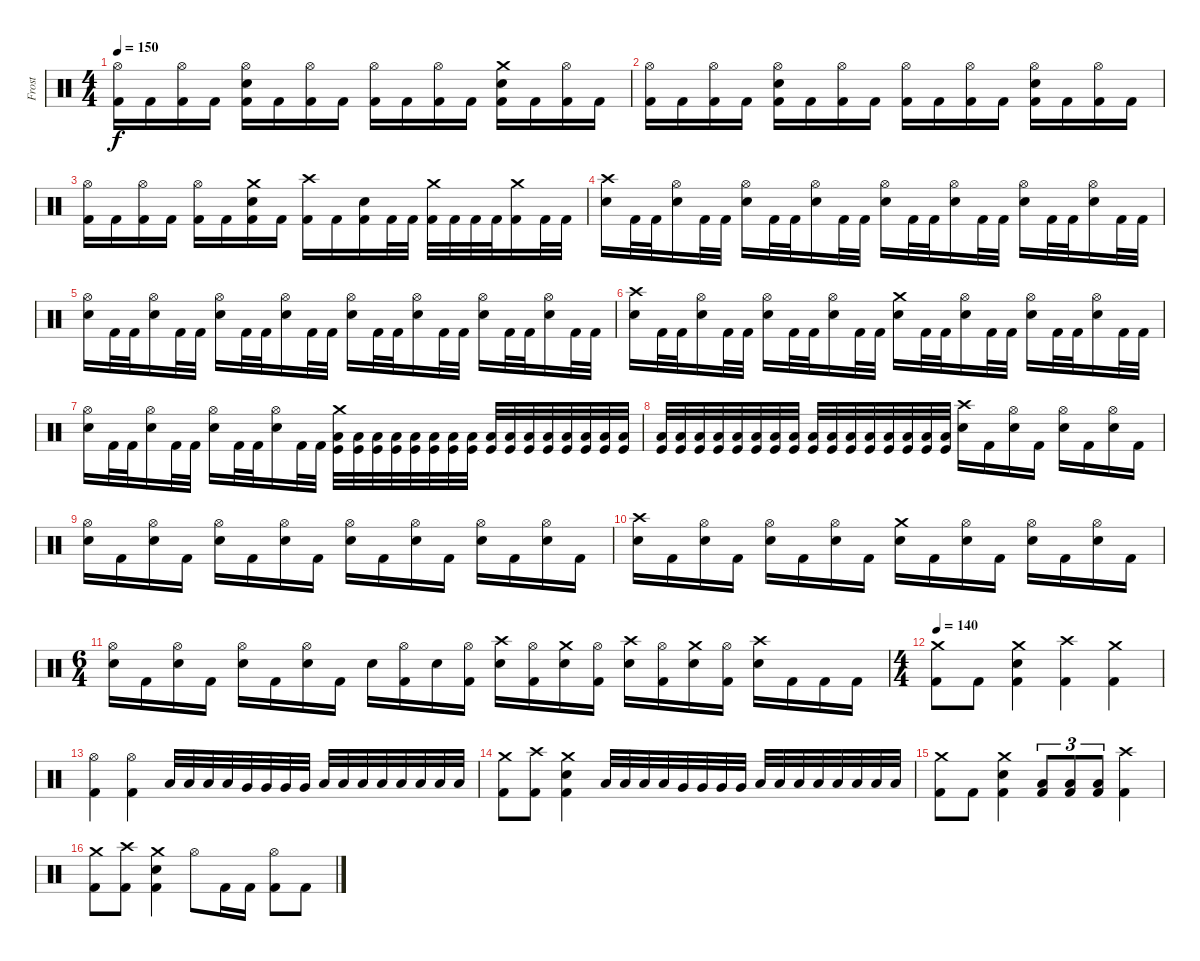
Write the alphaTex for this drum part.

\track ("Frost" "Frost") {instrument percussion}
\staff {score}
\articulation defaults
\ts (4 4)
\tempo 150
\clef neutral
\ks c
("Hi-Hat (open)" "Kick (hit) 2").16{dy f} "Kick (hit) 2".16 ("Hi-Hat (open)" "Kick (hit) 2").16 "Kick (hit) 2".16 ("Hi-Hat (open)" "Snare (hit) 2" "Kick (hit) 2").16 "Kick (hit) 2".16 ("Hi-Hat (open)" "Kick (hit) 2").16 "Kick (hit) 2".16 ("Hi-Hat (open)" "Kick (hit) 2").16 "Kick (hit) 2".16 ("Hi-Hat (open)" "Kick (hit) 2").16 "Kick (hit) 2".16 ("Crash medium (hit)" "Snare (hit) 2" "Kick (hit) 2").16 "Kick (hit) 2".16 ("Hi-Hat (open)" "Kick (hit) 2").16 "Kick (hit) 2".16 |
("Hi-Hat (open)" "Kick (hit) 2").16 "Kick (hit) 2".16 ("Hi-Hat (open)" "Kick (hit) 2").16 "Kick (hit) 2".16 ("Hi-Hat (open)" "Snare (hit) 2" "Kick (hit) 2").16 "Kick (hit) 2".16 ("Hi-Hat (open)" "Kick (hit) 2").16 "Kick (hit) 2".16 ("Hi-Hat (open)" "Kick (hit) 2").16 "Kick (hit) 2".16 ("Hi-Hat (open)" "Kick (hit) 2").16 "Kick (hit) 2".16 ("Hi-Hat (open)" "Snare (hit) 2" "Kick (hit) 2").16 "Kick (hit) 2".16 ("Hi-Hat (open)" "Kick (hit) 2").16 "Kick (hit) 2".16 |
("Hi-Hat (open)" "Kick (hit) 2").16 "Kick (hit) 2".16 ("Hi-Hat (open)" "Kick (hit) 2").16 "Kick (hit) 2".16 ("Hi-Hat (open)" "Kick (hit) 2").16 "Kick (hit) 2".16 ("Crash medium (hit)" "Snare (hit) 2" "Kick (hit) 2").16 "Kick (hit) 2".16 ("Crash high (hit)" "Kick (hit) 2").16 "Kick (hit) 2".16 ("Snare (hit) 2" "Kick (hit) 2").16 "Kick (hit) 2".32 "Kick (hit) 2".32 ("Crash medium (hit)" "Kick (hit) 2").32 "Kick (hit) 2".32 "Kick (hit) 2".32 "Kick (hit) 2".32 ("Crash medium (hit)" "Kick (hit) 2").16 "Kick (hit) 2".32 "Kick (hit) 2".32 |
("Crash high (hit)" "Snare (hit) 2").16 "Kick (hit) 2".32 "Kick (hit) 2".32 ("Hi-Hat (open)" "Snare (hit) 2").16 "Kick (hit) 2".32 "Kick (hit) 2".32 ("Hi-Hat (open)" "Snare (hit) 2").16 "Kick (hit) 2".32 "Kick (hit) 2".32 ("Hi-Hat (open)" "Snare (hit) 2").16 "Kick (hit) 2".32 "Kick (hit) 2".32 ("Hi-Hat (open)" "Snare (hit) 2").16 "Kick (hit) 2".32 "Kick (hit) 2".32 ("Hi-Hat (open)" "Snare (hit) 2").16 "Kick (hit) 2".32 "Kick (hit) 2".32 ("Hi-Hat (open)" "Snare (hit) 2").16 "Kick (hit) 2".32 "Kick (hit) 2".32 ("Hi-Hat (open)" "Snare (hit) 2").16 "Kick (hit) 2".32 "Kick (hit) 2".32 |
("Hi-Hat (open)" "Snare (hit) 2").16 "Kick (hit) 2".32 "Kick (hit) 2".32 ("Hi-Hat (open)" "Snare (hit) 2").16 "Kick (hit) 2".32 "Kick (hit) 2".32 ("Hi-Hat (open)" "Snare (hit) 2").16 "Kick (hit) 2".32 "Kick (hit) 2".32 ("Hi-Hat (open)" "Snare (hit) 2").16 "Kick (hit) 2".32 "Kick (hit) 2".32 ("Hi-Hat (open)" "Snare (hit) 2").16 "Kick (hit) 2".32 "Kick (hit) 2".32 ("Hi-Hat (open)" "Snare (hit) 2").16 "Kick (hit) 2".32 "Kick (hit) 2".32 ("Hi-Hat (open)" "Snare (hit) 2").16 "Kick (hit) 2".32 "Kick (hit) 2".32 ("Hi-Hat (open)" "Snare (hit) 2").16 "Kick (hit) 2".32 "Kick (hit) 2".32 |
("Crash high (hit)" "Snare (hit) 2").16 "Kick (hit) 2".32 "Kick (hit) 2".32 ("Hi-Hat (open)" "Snare (hit) 2").16 "Kick (hit) 2".32 "Kick (hit) 2".32 ("Hi-Hat (open)" "Snare (hit) 2").16 "Kick (hit) 2".32 "Kick (hit) 2".32 ("Hi-Hat (open)" "Snare (hit) 2").16 "Kick (hit) 2".32 "Kick (hit) 2".32 ("Crash medium (hit)" "Snare (hit) 2").16 "Kick (hit) 2".32 "Kick (hit) 2".32 ("Hi-Hat (open)" "Snare (hit) 2").16 "Kick (hit) 2".32 "Kick (hit) 2".32 ("Hi-Hat (open)" "Snare (hit) 2").16 "Kick (hit) 2".32 "Kick (hit) 2".32 ("Hi-Hat (open)" "Snare (hit) 2").16 "Kick (hit) 2".32 "Kick (hit) 2".32 |
("Hi-Hat (open)" "Snare (hit) 2").16 "Kick (hit) 2".32 "Kick (hit) 2".32 ("Hi-Hat (open)" "Snare (hit) 2").16 "Kick (hit) 2".32 "Kick (hit) 2".32 ("Hi-Hat (open)" "Snare (hit) 2").16 "Kick (hit) 2".32 "Kick (hit) 2".32 ("Hi-Hat (open)" "Snare (hit) 2").16 "Kick (hit) 2".32 "Kick (hit) 2".32 ("Crash medium (hit)" "Low Tom (hit)" "Kick (hit)").32 ("Low Tom (hit)" "Kick (hit)").32 ("Low Tom (hit)" "Kick (hit)").32 ("Low Tom (hit)" "Kick (hit)").32 ("Low Floor Tom (hit)" "Kick (hit)").32 ("Low Floor Tom (hit)" "Kick (hit)").32 ("Low Floor Tom (hit)" "Kick (hit)").32 ("Low Floor Tom (hit)" "Kick (hit)").32 ("Low Tom (hit)" "Kick (hit)").32 ("Low Tom (hit)" "Kick (hit)").32 ("Low Tom (hit)" "Kick (hit)").32 ("Low Tom (hit)" "Kick (hit)").32 ("Low Floor Tom (hit)" "Kick (hit)").32 ("Low Floor Tom (hit)" "Kick (hit)").32 ("Low Floor Tom (hit)" "Kick (hit)").32 ("Low Floor Tom (hit)" "Kick (hit)").32 |
("Low Tom (hit)" "Kick (hit)").32 ("Low Tom (hit)" "Kick (hit)").32 ("Low Tom (hit)" "Kick (hit)").32 ("Low Tom (hit)" "Kick (hit)").32 ("Low Floor Tom (hit)" "Kick (hit)").32 ("Low Floor Tom (hit)" "Kick (hit)").32 ("Low Floor Tom (hit)" "Kick (hit)").32 ("Low Floor Tom (hit)" "Kick (hit)").32 ("Low Tom (hit)" "Kick (hit)").32 ("Low Tom (hit)" "Kick (hit)").32 ("Low Tom (hit)" "Kick (hit)").32 ("Low Tom (hit)" "Kick (hit)").32 ("Low Floor Tom (hit)" "Kick (hit)").32 ("Low Floor Tom (hit)" "Kick (hit)").32 ("Low Floor Tom (hit)" "Kick (hit)").32 ("Low Floor Tom (hit)" "Kick (hit)").32 ("Crash high (hit)" "Snare (hit) 2").16 "Kick (hit) 2".16 ("Hi-Hat (open)" "Snare (hit) 2").16 "Kick (hit) 2".16 ("Hi-Hat (open)" "Snare (hit) 2").16 "Kick (hit) 2".16 ("Hi-Hat (open)" "Snare (hit) 2").16 "Kick (hit) 2".16 |
("Hi-Hat (open)" "Snare (hit) 2").16 "Kick (hit) 2".16 ("Hi-Hat (open)" "Snare (hit) 2").16 "Kick (hit) 2".16 ("Hi-Hat (open)" "Snare (hit) 2").16 "Kick (hit) 2".16 ("Hi-Hat (open)" "Snare (hit) 2").16 "Kick (hit) 2".16 ("Hi-Hat (open)" "Snare (hit) 2").16 "Kick (hit) 2".16 ("Hi-Hat (open)" "Snare (hit) 2").16 "Kick (hit) 2".16 ("Hi-Hat (open)" "Snare (hit) 2").16 "Kick (hit) 2".16 ("Hi-Hat (open)" "Snare (hit) 2").16 "Kick (hit) 2".16 |
("Crash high (hit)" "Snare (hit) 2").16 "Kick (hit) 2".16 ("Hi-Hat (open)" "Snare (hit) 2").16 "Kick (hit) 2".16 ("Hi-Hat (open)" "Snare (hit) 2").16 "Kick (hit) 2".16 ("Hi-Hat (open)" "Snare (hit) 2").16 "Kick (hit) 2".16 ("Crash medium (hit)" "Snare (hit) 2").16 "Kick (hit) 2".16 ("Hi-Hat (open)" "Snare (hit) 2").16 "Kick (hit) 2".16 ("Hi-Hat (open)" "Snare (hit) 2").16 "Kick (hit) 2".16 ("Hi-Hat (open)" "Snare (hit) 2").16 "Kick (hit) 2".16 |
\ts (6 4)
("Hi-Hat (open)" "Snare (hit) 2").16 "Kick (hit) 2".16 ("Hi-Hat (open)" "Snare (hit) 2").16 "Kick (hit) 2".16 ("Hi-Hat (open)" "Snare (hit) 2").16 "Kick (hit) 2".16 ("Hi-Hat (open)" "Snare (hit) 2").16 "Kick (hit) 2".16 "Snare (hit) 2".16 ("Hi-Hat (open)" "Kick (hit) 2").16 "Snare (hit) 2".16 ("Hi-Hat (open)" "Kick (hit) 2").16 ("Crash high (hit)" "Snare (hit) 2").16 ("Hi-Hat (open)" "Kick (hit) 2").16 ("Crash medium (hit)" "Snare (hit) 2").16 ("Hi-Hat (open)" "Kick (hit) 2").16 ("Crash high (hit)" "Snare (hit) 2").16 ("Hi-Hat (open)" "Kick (hit) 2").16 ("Crash medium (hit)" "Snare (hit) 2").16 ("Hi-Hat (open)" "Kick (hit) 2").16 ("Crash high (hit)" "Snare (hit) 2").16 "Kick (hit) 2".16 "Kick (hit) 2".16 "Kick (hit) 2".16 |
\ts (4 4)
\tempo 140
("Crash medium (hit)" "Kick (hit) 2").8 "Kick (hit) 2".8 ("Crash medium (hit)" "Snare (hit) 2" "Kick (hit) 2").4 ("Crash high (hit)" "Kick (hit) 2").4 ("Crash medium (hit)" "Kick (hit) 2").4 |
("Hi-Hat (open)" "Kick (hit) 2").4 ("Hi-Hat (open)" "Kick (hit) 2").4 "Low Tom (hit)".32 "Low Tom (hit)".32 "Low Tom (hit)".32 "Low Tom (hit)".32 "Very Low Tom (hit)".32 "Very Low Tom (hit)".32 "Very Low Tom (hit)".32 "Very Low Tom (hit)".32 "Low Floor Tom (hit)".32 "Low Floor Tom (hit)".32 "Low Floor Tom (hit)".32 "Low Floor Tom (hit)".32 "Low Floor Tom (hit)".32 "Low Floor Tom (hit)".32 "Low Floor Tom (hit)".32 "Low Floor Tom (hit)".32 |
("Crash medium (hit)" "Kick (hit) 2").8 ("Crash high (hit)" "Kick (hit) 2").8 ("Crash medium (hit)" "Snare (hit) 2" "Kick (hit) 2").4 "Low Tom (hit)".32 "Low Tom (hit)".32 "Low Tom (hit)".32 "Low Tom (hit)".32 "Very Low Tom (hit)".32 "Very Low Tom (hit)".32 "Very Low Tom (hit)".32 "Very Low Tom (hit)".32 "Low Floor Tom (hit)".32 "Low Floor Tom (hit)".32 "Low Floor Tom (hit)".32 "Low Floor Tom (hit)".32 "Low Floor Tom (hit)".32 "Low Floor Tom (hit)".32 "Low Floor Tom (hit)".32 "Low Floor Tom (hit)".32 |
("Crash medium (hit)" "Kick (hit) 2").8 "Kick (hit) 2".8 ("Crash medium (hit)" "Snare (hit) 2" "Kick (hit) 2").4 ("Low Tom (hit)" "Kick (hit) 2").8{tu (3 2)} ("Low Tom (hit)" "Kick (hit) 2").8{tu (3 2)} ("Low Tom (hit)" "Kick (hit) 2").8{tu (3 2)} ("Crash high (hit)" "Kick (hit) 2").4 |
("Crash medium (hit)" "Kick (hit) 2").8 ("Crash high (hit)" "Kick (hit) 2").8 ("Crash medium (hit)" "Snare (hit) 2" "Kick (hit) 2").4 "Hi-Hat (open)".8 "Kick (hit) 2".16 "Kick (hit) 2".16 ("Hi-Hat (open)" "Kick (hit) 2").8 "Kick (hit) 2".8
